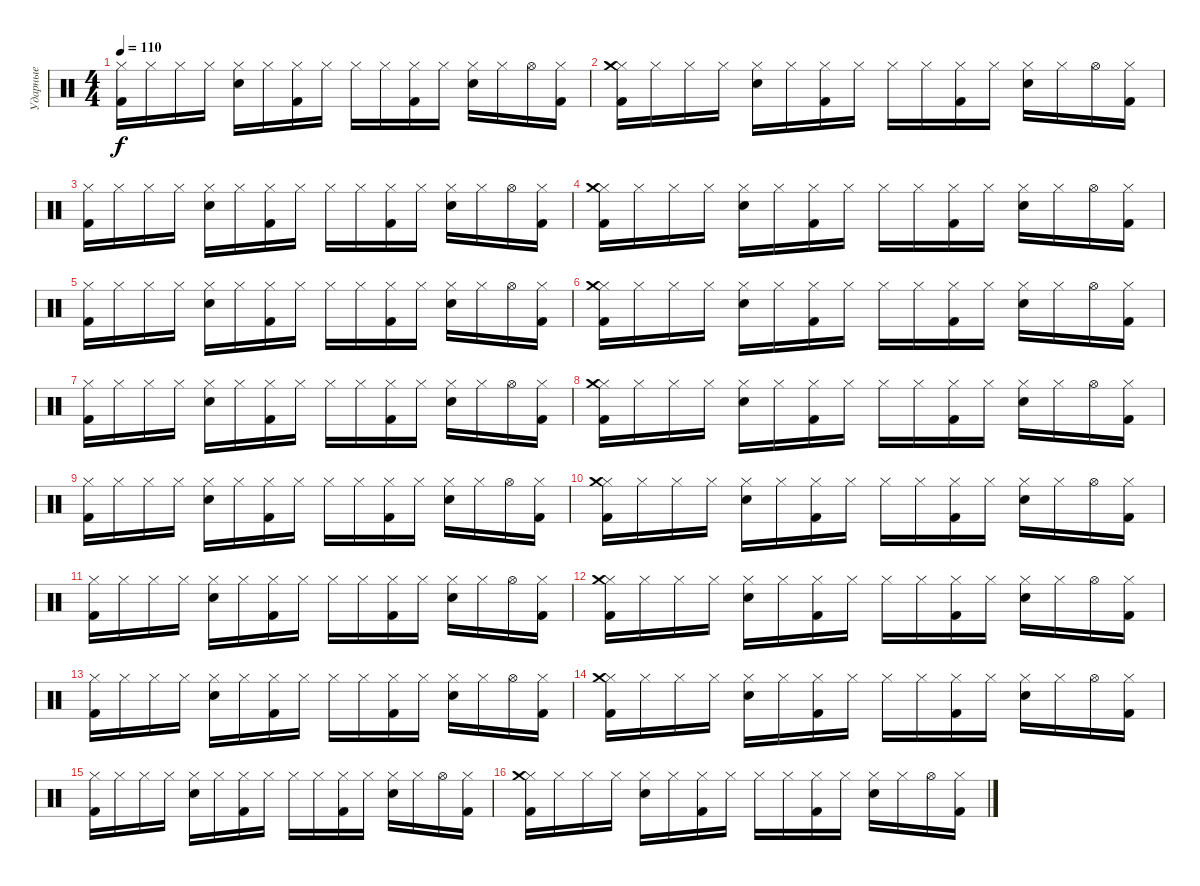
\track ("Ударные" "Ударные") {instrument percussion}
\staff {score}
\articulation defaults
\ts (4 4)
\tempo 110
\clef neutral
\ks c
("Hi-Hat (closed)" "Kick (hit) 2").16{dy f} "Hi-Hat (closed)".16 "Hi-Hat (closed)".16 "Hi-Hat (closed)".16 ("Hi-Hat (closed)" "Electric Snare (hit)").16 "Hi-Hat (closed)".16 ("Hi-Hat (closed)" "Kick (hit) 2").16 "Hi-Hat (closed)".16 "Hi-Hat (closed)".16 "Hi-Hat (closed)".16 ("Hi-Hat (closed)" "Kick (hit) 2").16 "Hi-Hat (closed)".16 ("Hi-Hat (closed)" "Electric Snare (hit)").16 "Hi-Hat (closed)".16 "Hi-Hat (open)".16 ("Hi-Hat (closed)" "Kick (hit) 2").16 |
("Hi-Hat (closed)" "Kick (hit) 2" "Crash medium (hit)").16 "Hi-Hat (closed)".16 "Hi-Hat (closed)".16 "Hi-Hat (closed)".16 ("Hi-Hat (closed)" "Electric Snare (hit)").16 "Hi-Hat (closed)".16 ("Hi-Hat (closed)" "Kick (hit) 2").16 "Hi-Hat (closed)".16 "Hi-Hat (closed)".16 "Hi-Hat (closed)".16 ("Hi-Hat (closed)" "Kick (hit) 2").16 "Hi-Hat (closed)".16 ("Hi-Hat (closed)" "Electric Snare (hit)").16 "Hi-Hat (closed)".16 "Hi-Hat (open)".16 ("Hi-Hat (closed)" "Kick (hit) 2").16 |
("Hi-Hat (closed)" "Kick (hit) 2").16 "Hi-Hat (closed)".16 "Hi-Hat (closed)".16 "Hi-Hat (closed)".16 ("Hi-Hat (closed)" "Electric Snare (hit)").16 "Hi-Hat (closed)".16 ("Hi-Hat (closed)" "Kick (hit) 2").16 "Hi-Hat (closed)".16 "Hi-Hat (closed)".16 "Hi-Hat (closed)".16 ("Hi-Hat (closed)" "Kick (hit) 2").16 "Hi-Hat (closed)".16 ("Hi-Hat (closed)" "Electric Snare (hit)").16 "Hi-Hat (closed)".16 "Hi-Hat (open)".16 ("Hi-Hat (closed)" "Kick (hit) 2").16 |
("Hi-Hat (closed)" "Kick (hit) 2" "Crash medium (hit)").16 "Hi-Hat (closed)".16 "Hi-Hat (closed)".16 "Hi-Hat (closed)".16 ("Hi-Hat (closed)" "Electric Snare (hit)").16 "Hi-Hat (closed)".16 ("Hi-Hat (closed)" "Kick (hit) 2").16 "Hi-Hat (closed)".16 "Hi-Hat (closed)".16 "Hi-Hat (closed)".16 ("Hi-Hat (closed)" "Kick (hit) 2").16 "Hi-Hat (closed)".16 ("Hi-Hat (closed)" "Electric Snare (hit)").16 "Hi-Hat (closed)".16 "Hi-Hat (open)".16 ("Hi-Hat (closed)" "Kick (hit) 2").16 |
("Hi-Hat (closed)" "Kick (hit) 2").16 "Hi-Hat (closed)".16 "Hi-Hat (closed)".16 "Hi-Hat (closed)".16 ("Hi-Hat (closed)" "Electric Snare (hit)").16 "Hi-Hat (closed)".16 ("Hi-Hat (closed)" "Kick (hit) 2").16 "Hi-Hat (closed)".16 "Hi-Hat (closed)".16 "Hi-Hat (closed)".16 ("Hi-Hat (closed)" "Kick (hit) 2").16 "Hi-Hat (closed)".16 ("Hi-Hat (closed)" "Electric Snare (hit)").16 "Hi-Hat (closed)".16 "Hi-Hat (open)".16 ("Hi-Hat (closed)" "Kick (hit) 2").16 |
("Hi-Hat (closed)" "Kick (hit) 2" "Crash medium (hit)").16 "Hi-Hat (closed)".16 "Hi-Hat (closed)".16 "Hi-Hat (closed)".16 ("Hi-Hat (closed)" "Electric Snare (hit)").16 "Hi-Hat (closed)".16 ("Hi-Hat (closed)" "Kick (hit) 2").16 "Hi-Hat (closed)".16 "Hi-Hat (closed)".16 "Hi-Hat (closed)".16 ("Hi-Hat (closed)" "Kick (hit) 2").16 "Hi-Hat (closed)".16 ("Hi-Hat (closed)" "Electric Snare (hit)").16 "Hi-Hat (closed)".16 "Hi-Hat (open)".16 ("Hi-Hat (closed)" "Kick (hit) 2").16 |
("Hi-Hat (closed)" "Kick (hit) 2").16 "Hi-Hat (closed)".16 "Hi-Hat (closed)".16 "Hi-Hat (closed)".16 ("Hi-Hat (closed)" "Electric Snare (hit)").16 "Hi-Hat (closed)".16 ("Hi-Hat (closed)" "Kick (hit) 2").16 "Hi-Hat (closed)".16 "Hi-Hat (closed)".16 "Hi-Hat (closed)".16 ("Hi-Hat (closed)" "Kick (hit) 2").16 "Hi-Hat (closed)".16 ("Hi-Hat (closed)" "Electric Snare (hit)").16 "Hi-Hat (closed)".16 "Hi-Hat (open)".16 ("Hi-Hat (closed)" "Kick (hit) 2").16 |
("Hi-Hat (closed)" "Kick (hit) 2" "Crash medium (hit)").16 "Hi-Hat (closed)".16 "Hi-Hat (closed)".16 "Hi-Hat (closed)".16 ("Hi-Hat (closed)" "Electric Snare (hit)").16 "Hi-Hat (closed)".16 ("Hi-Hat (closed)" "Kick (hit) 2").16 "Hi-Hat (closed)".16 "Hi-Hat (closed)".16 "Hi-Hat (closed)".16 ("Hi-Hat (closed)" "Kick (hit) 2").16 "Hi-Hat (closed)".16 ("Hi-Hat (closed)" "Electric Snare (hit)").16 "Hi-Hat (closed)".16 "Hi-Hat (open)".16 ("Hi-Hat (closed)" "Kick (hit) 2").16 |
("Hi-Hat (closed)" "Kick (hit) 2").16 "Hi-Hat (closed)".16 "Hi-Hat (closed)".16 "Hi-Hat (closed)".16 ("Hi-Hat (closed)" "Electric Snare (hit)").16 "Hi-Hat (closed)".16 ("Hi-Hat (closed)" "Kick (hit) 2").16 "Hi-Hat (closed)".16 "Hi-Hat (closed)".16 "Hi-Hat (closed)".16 ("Hi-Hat (closed)" "Kick (hit) 2").16 "Hi-Hat (closed)".16 ("Hi-Hat (closed)" "Electric Snare (hit)").16 "Hi-Hat (closed)".16 "Hi-Hat (open)".16 ("Hi-Hat (closed)" "Kick (hit) 2").16 |
("Hi-Hat (closed)" "Kick (hit) 2" "Crash medium (hit)").16 "Hi-Hat (closed)".16 "Hi-Hat (closed)".16 "Hi-Hat (closed)".16 ("Hi-Hat (closed)" "Electric Snare (hit)").16 "Hi-Hat (closed)".16 ("Hi-Hat (closed)" "Kick (hit) 2").16 "Hi-Hat (closed)".16 "Hi-Hat (closed)".16 "Hi-Hat (closed)".16 ("Hi-Hat (closed)" "Kick (hit) 2").16 "Hi-Hat (closed)".16 ("Hi-Hat (closed)" "Electric Snare (hit)").16 "Hi-Hat (closed)".16 "Hi-Hat (open)".16 ("Hi-Hat (closed)" "Kick (hit) 2").16 |
("Hi-Hat (closed)" "Kick (hit) 2").16 "Hi-Hat (closed)".16 "Hi-Hat (closed)".16 "Hi-Hat (closed)".16 ("Hi-Hat (closed)" "Electric Snare (hit)").16 "Hi-Hat (closed)".16 ("Hi-Hat (closed)" "Kick (hit) 2").16 "Hi-Hat (closed)".16 "Hi-Hat (closed)".16 "Hi-Hat (closed)".16 ("Hi-Hat (closed)" "Kick (hit) 2").16 "Hi-Hat (closed)".16 ("Hi-Hat (closed)" "Electric Snare (hit)").16 "Hi-Hat (closed)".16 "Hi-Hat (open)".16 ("Hi-Hat (closed)" "Kick (hit) 2").16 |
("Hi-Hat (closed)" "Kick (hit) 2" "Crash medium (hit)").16 "Hi-Hat (closed)".16 "Hi-Hat (closed)".16 "Hi-Hat (closed)".16 ("Hi-Hat (closed)" "Electric Snare (hit)").16 "Hi-Hat (closed)".16 ("Hi-Hat (closed)" "Kick (hit) 2").16 "Hi-Hat (closed)".16 "Hi-Hat (closed)".16 "Hi-Hat (closed)".16 ("Hi-Hat (closed)" "Kick (hit) 2").16 "Hi-Hat (closed)".16 ("Hi-Hat (closed)" "Electric Snare (hit)").16 "Hi-Hat (closed)".16 "Hi-Hat (open)".16 ("Hi-Hat (closed)" "Kick (hit) 2").16 |
("Hi-Hat (closed)" "Kick (hit) 2").16 "Hi-Hat (closed)".16 "Hi-Hat (closed)".16 "Hi-Hat (closed)".16 ("Hi-Hat (closed)" "Electric Snare (hit)").16 "Hi-Hat (closed)".16 ("Hi-Hat (closed)" "Kick (hit) 2").16 "Hi-Hat (closed)".16 "Hi-Hat (closed)".16 "Hi-Hat (closed)".16 ("Hi-Hat (closed)" "Kick (hit) 2").16 "Hi-Hat (closed)".16 ("Hi-Hat (closed)" "Electric Snare (hit)").16 "Hi-Hat (closed)".16 "Hi-Hat (open)".16 ("Hi-Hat (closed)" "Kick (hit) 2").16 |
("Hi-Hat (closed)" "Kick (hit) 2" "Crash medium (hit)").16 "Hi-Hat (closed)".16 "Hi-Hat (closed)".16 "Hi-Hat (closed)".16 ("Hi-Hat (closed)" "Electric Snare (hit)").16 "Hi-Hat (closed)".16 ("Hi-Hat (closed)" "Kick (hit) 2").16 "Hi-Hat (closed)".16 "Hi-Hat (closed)".16 "Hi-Hat (closed)".16 ("Hi-Hat (closed)" "Kick (hit) 2").16 "Hi-Hat (closed)".16 ("Hi-Hat (closed)" "Electric Snare (hit)").16 "Hi-Hat (closed)".16 "Hi-Hat (open)".16 ("Hi-Hat (closed)" "Kick (hit) 2").16 |
("Hi-Hat (closed)" "Kick (hit) 2").16 "Hi-Hat (closed)".16 "Hi-Hat (closed)".16 "Hi-Hat (closed)".16 ("Hi-Hat (closed)" "Electric Snare (hit)").16 "Hi-Hat (closed)".16 ("Hi-Hat (closed)" "Kick (hit) 2").16 "Hi-Hat (closed)".16 "Hi-Hat (closed)".16 "Hi-Hat (closed)".16 ("Hi-Hat (closed)" "Kick (hit) 2").16 "Hi-Hat (closed)".16 ("Hi-Hat (closed)" "Electric Snare (hit)").16 "Hi-Hat (closed)".16 "Hi-Hat (open)".16 ("Hi-Hat (closed)" "Kick (hit) 2").16 |
("Hi-Hat (closed)" "Kick (hit) 2" "Crash medium (hit)").16 "Hi-Hat (closed)".16 "Hi-Hat (closed)".16 "Hi-Hat (closed)".16 ("Hi-Hat (closed)" "Electric Snare (hit)").16 "Hi-Hat (closed)".16 ("Hi-Hat (closed)" "Kick (hit) 2").16 "Hi-Hat (closed)".16 "Hi-Hat (closed)".16 "Hi-Hat (closed)".16 ("Hi-Hat (closed)" "Kick (hit) 2").16 "Hi-Hat (closed)".16 ("Hi-Hat (closed)" "Electric Snare (hit)").16 "Hi-Hat (closed)".16 "Hi-Hat (open)".16 ("Hi-Hat (closed)" "Kick (hit) 2").16
